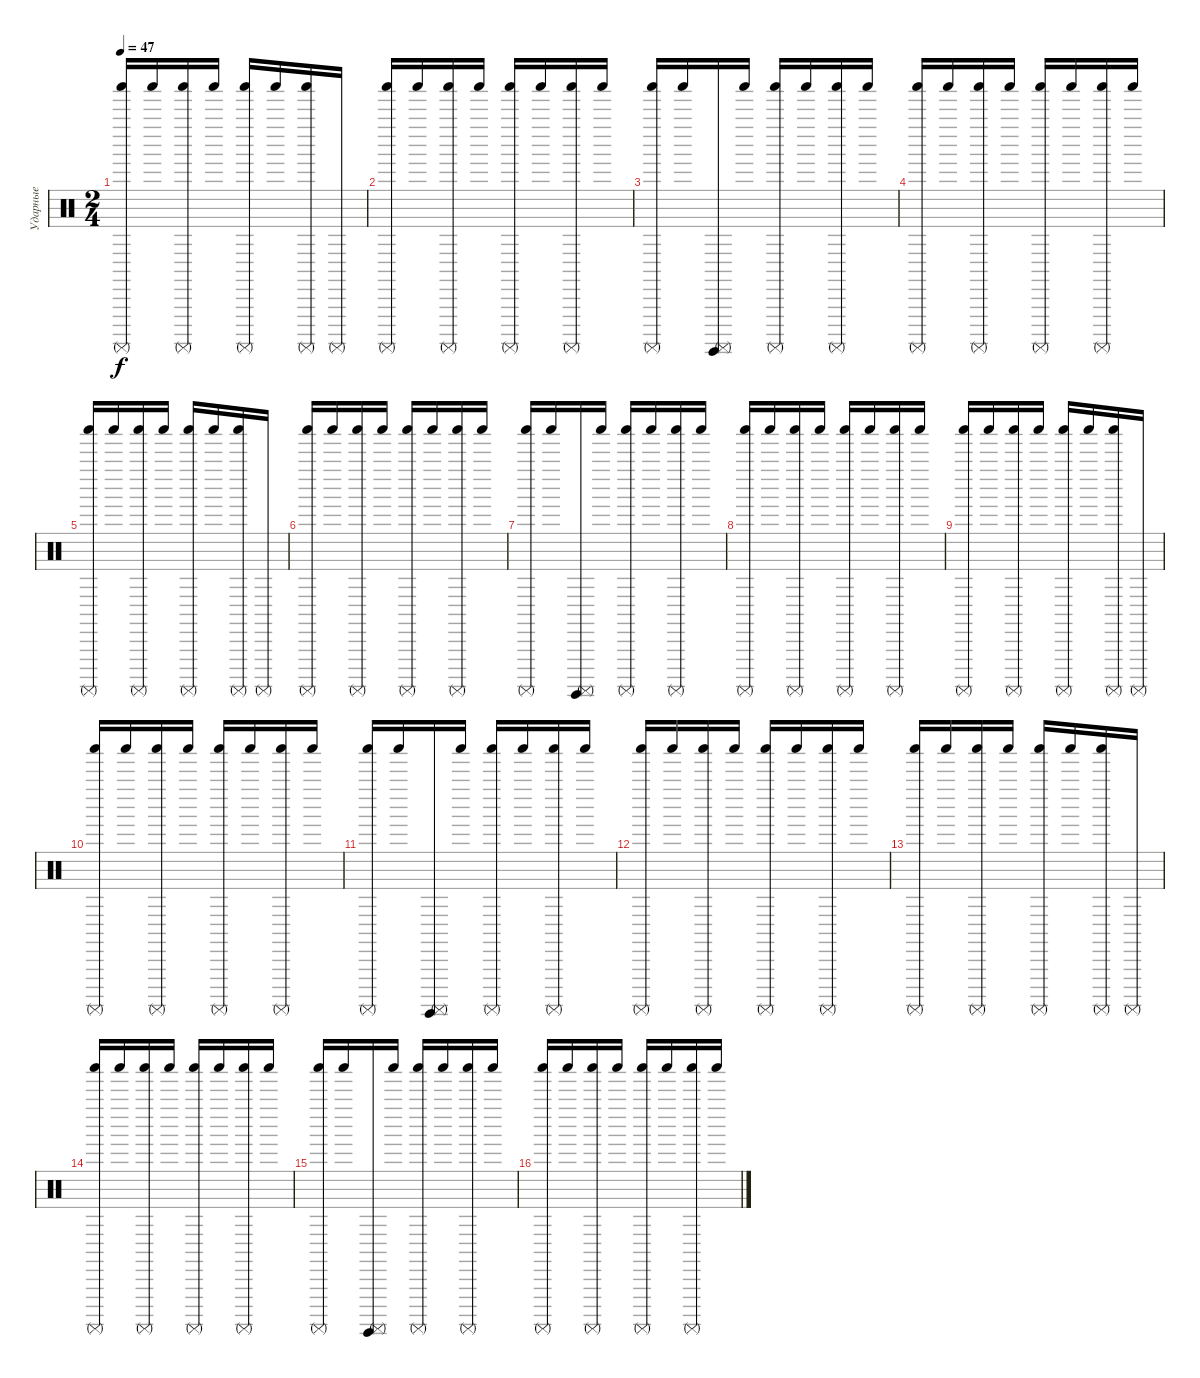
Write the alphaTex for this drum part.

\track ("Ударные" "Ударные") {instrument percussion}
\staff {score}
\articulation defaults
\ts (2 4)
\tempo 47
\clef neutral
\ks c
("Shaker (hit)" "Surdo (mute)").16{dy f} "Shaker (hit)".16 ("Shaker (hit)" "Surdo (mute)").16 "Shaker (hit)".16 ("Shaker (hit)" "Surdo (mute)").16 "Shaker (hit)".16 ("Shaker (hit)" "Surdo (mute)").16 "Surdo (mute)".16 |
("Shaker (hit)" "Surdo (mute)").16 "Shaker (hit)".16 ("Shaker (hit)" "Surdo (mute)").16 "Shaker (hit)".16 ("Shaker (hit)" "Surdo (mute)").16 "Shaker (hit)".16 ("Shaker (hit)" "Surdo (mute)").16 "Shaker (hit)".16 |
("Shaker (hit)" "Surdo (mute)").16 "Shaker (hit)".16 ("Surdo (mute)" "Surdo (hit)").16 "Shaker (hit)".16 ("Shaker (hit)" "Surdo (mute)").16 "Shaker (hit)".16 ("Shaker (hit)" "Surdo (mute)").16 "Shaker (hit)".16 |
("Shaker (hit)" "Surdo (mute)").16 "Shaker (hit)".16 ("Shaker (hit)" "Surdo (mute)").16 "Shaker (hit)".16 ("Shaker (hit)" "Surdo (mute)").16 "Shaker (hit)".16 ("Shaker (hit)" "Surdo (mute)").16 "Shaker (hit)".16 |
("Shaker (hit)" "Surdo (mute)").16 "Shaker (hit)".16 ("Shaker (hit)" "Surdo (mute)").16 "Shaker (hit)".16 ("Shaker (hit)" "Surdo (mute)").16 "Shaker (hit)".16 ("Shaker (hit)" "Surdo (mute)").16 "Surdo (mute)".16 |
("Shaker (hit)" "Surdo (mute)").16 "Shaker (hit)".16 ("Shaker (hit)" "Surdo (mute)").16 "Shaker (hit)".16 ("Shaker (hit)" "Surdo (mute)").16 "Shaker (hit)".16 ("Shaker (hit)" "Surdo (mute)").16 "Shaker (hit)".16 |
("Shaker (hit)" "Surdo (mute)").16 "Shaker (hit)".16 ("Surdo (mute)" "Surdo (hit)").16 "Shaker (hit)".16 ("Shaker (hit)" "Surdo (mute)").16 "Shaker (hit)".16 ("Shaker (hit)" "Surdo (mute)").16 "Shaker (hit)".16 |
("Shaker (hit)" "Surdo (mute)").16 "Shaker (hit)".16 ("Shaker (hit)" "Surdo (mute)").16 "Shaker (hit)".16 ("Shaker (hit)" "Surdo (mute)").16 "Shaker (hit)".16 ("Shaker (hit)" "Surdo (mute)").16 "Shaker (hit)".16 |
("Shaker (hit)" "Surdo (mute)").16 "Shaker (hit)".16 ("Shaker (hit)" "Surdo (mute)").16 "Shaker (hit)".16 ("Shaker (hit)" "Surdo (mute)").16 "Shaker (hit)".16 ("Shaker (hit)" "Surdo (mute)").16 "Surdo (mute)".16 |
("Shaker (hit)" "Surdo (mute)").16 "Shaker (hit)".16 ("Shaker (hit)" "Surdo (mute)").16 "Shaker (hit)".16 ("Shaker (hit)" "Surdo (mute)").16 "Shaker (hit)".16 ("Shaker (hit)" "Surdo (mute)").16 "Shaker (hit)".16 |
("Shaker (hit)" "Surdo (mute)").16 "Shaker (hit)".16 ("Surdo (mute)" "Surdo (hit)").16 "Shaker (hit)".16 ("Shaker (hit)" "Surdo (mute)").16 "Shaker (hit)".16 ("Shaker (hit)" "Surdo (mute)").16 "Shaker (hit)".16 |
("Shaker (hit)" "Surdo (mute)").16 "Shaker (hit)".16 ("Shaker (hit)" "Surdo (mute)").16 "Shaker (hit)".16 ("Shaker (hit)" "Surdo (mute)").16 "Shaker (hit)".16 ("Shaker (hit)" "Surdo (mute)").16 "Shaker (hit)".16 |
("Shaker (hit)" "Surdo (mute)").16 "Shaker (hit)".16 ("Shaker (hit)" "Surdo (mute)").16 "Shaker (hit)".16 ("Shaker (hit)" "Surdo (mute)").16 "Shaker (hit)".16 ("Shaker (hit)" "Surdo (mute)").16 "Surdo (mute)".16 |
("Shaker (hit)" "Surdo (mute)").16 "Shaker (hit)".16 ("Shaker (hit)" "Surdo (mute)").16 "Shaker (hit)".16 ("Shaker (hit)" "Surdo (mute)").16 "Shaker (hit)".16 ("Shaker (hit)" "Surdo (mute)").16 "Shaker (hit)".16 |
("Shaker (hit)" "Surdo (mute)").16 "Shaker (hit)".16 ("Surdo (mute)" "Surdo (hit)").16 "Shaker (hit)".16 ("Shaker (hit)" "Surdo (mute)").16 "Shaker (hit)".16 ("Shaker (hit)" "Surdo (mute)").16 "Shaker (hit)".16 |
("Shaker (hit)" "Surdo (mute)").16 "Shaker (hit)".16 ("Shaker (hit)" "Surdo (mute)").16 "Shaker (hit)".16 ("Shaker (hit)" "Surdo (mute)").16 "Shaker (hit)".16 ("Shaker (hit)" "Surdo (mute)").16 "Shaker (hit)".16
